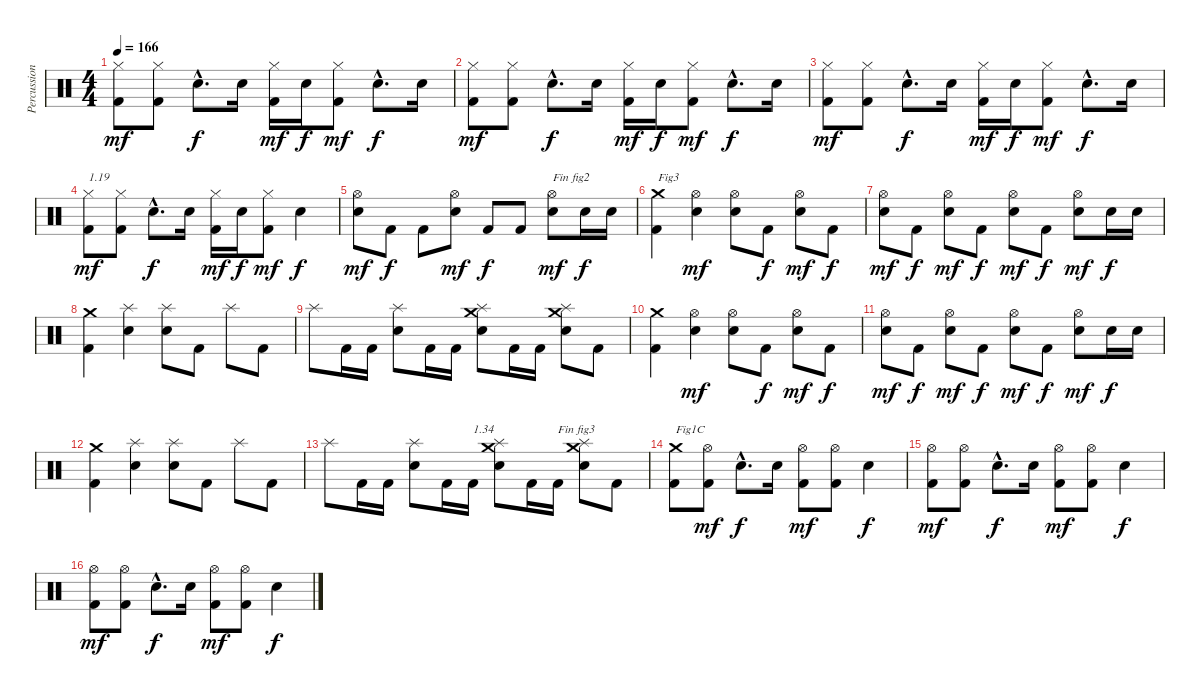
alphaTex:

\track ("Percussions" "Percussion") {instrument percussion}
\staff {score}
\articulation defaults
\ts (4 4)
\tempo 166
\clef neutral
\ks c
("Kick (hit) 2" "Hi-Hat (closed)").8{dy mf} ("Kick (hit) 2" "Hi-Hat (closed)").8 "Electric Snare (hit)"{hac}.8{d dy f} "Electric Snare (hit)".16 ("Kick (hit) 2" "Hi-Hat (closed)").16{dy mf} "Electric Snare (hit)".16{dy f} ("Kick (hit) 2" "Hi-Hat (closed)").8{dy mf} "Electric Snare (hit)"{hac}.8{d dy f} "Electric Snare (hit)".16 |
("Kick (hit) 2" "Hi-Hat (closed)").8{dy mf} ("Kick (hit) 2" "Hi-Hat (closed)").8 "Electric Snare (hit)"{hac}.8{d dy f} "Electric Snare (hit)".16 ("Kick (hit) 2" "Hi-Hat (closed)").16{dy mf} "Electric Snare (hit)".16{dy f} ("Kick (hit) 2" "Hi-Hat (closed)").8{dy mf} "Electric Snare (hit)"{hac}.8{d dy f} "Electric Snare (hit)".16 |
("Kick (hit) 2" "Hi-Hat (closed)").8{dy mf} ("Kick (hit) 2" "Hi-Hat (closed)").8 "Electric Snare (hit)"{hac}.8{d dy f} "Electric Snare (hit)".16 ("Kick (hit) 2" "Hi-Hat (closed)").16{dy mf} "Electric Snare (hit)".16{dy f} ("Kick (hit) 2" "Hi-Hat (closed)").8{dy mf} "Electric Snare (hit)"{hac}.8{d dy f} "Electric Snare (hit)".16 |
("Kick (hit) 2" "Hi-Hat (closed)").8{txt "1.19" dy mf} ("Kick (hit) 2" "Hi-Hat (closed)").8 "Electric Snare (hit)"{hac}.8{d dy f} "Electric Snare (hit)".16 ("Kick (hit) 2" "Hi-Hat (closed)").16{dy mf} "Electric Snare (hit)".16{dy f} ("Kick (hit) 2" "Hi-Hat (closed)").8{dy mf} "Electric Snare (hit)".4{dy f} |
("Electric Snare (hit)" "Hi-Hat (open)").8{dy mf} "Kick (hit) 2".8{dy f} "Kick (hit) 2".8 ("Electric Snare (hit)" "Hi-Hat (open)").8{dy mf} "Kick (hit) 2".8{dy f} "Kick (hit) 2".8 ("Electric Snare (hit)" "Hi-Hat (open)").8{txt "Fin fig2" dy mf} "Electric Snare (hit)".16{dy f} "Electric Snare (hit)".16 |
("Kick (hit) 2" "Crash medium (hit)").4{txt "Fig3"} ("Electric Snare (hit)" "Hi-Hat (open)").4{dy mf} ("Electric Snare (hit)" "Hi-Hat (open)").8 "Kick (hit) 2".8{dy f} ("Electric Snare (hit)" "Hi-Hat (open)").8{dy mf} "Kick (hit) 2".8{dy f} |
("Electric Snare (hit)" "Hi-Hat (open)").8{dy mf} "Kick (hit) 2".8{dy f} ("Electric Snare (hit)" "Hi-Hat (open)").8{dy mf} "Kick (hit) 2".8{dy f} ("Electric Snare (hit)" "Hi-Hat (open)").8{dy mf} "Kick (hit) 2".8{dy f} ("Electric Snare (hit)" "Hi-Hat (open)").8{dy mf} "Electric Snare (hit)".16{dy f} "Electric Snare (hit)".16 |
("Kick (hit) 2" "Crash medium (hit)").4 ("Electric Snare (hit)" "Splash (hit)").4 ("Electric Snare (hit)" "Splash (hit)").8 "Kick (hit) 2".8 "Splash (hit)".8 "Kick (hit) 2".8 |
"Splash (hit)".8 "Kick (hit) 2".16 "Kick (hit) 2".16 ("Electric Snare (hit)" "Splash (hit)").8 "Kick (hit) 2".16 "Kick (hit) 2".16 ("Electric Snare (hit)" "Splash (hit)" "Crash medium (hit)").8 "Kick (hit) 2".16 "Kick (hit) 2".16 ("Electric Snare (hit)" "Splash (hit)" "Crash medium (hit)").8 "Kick (hit) 2".8 |
("Kick (hit) 2" "Crash medium (hit)").4 ("Electric Snare (hit)" "Hi-Hat (open)").4{dy mf} ("Electric Snare (hit)" "Hi-Hat (open)").8 "Kick (hit) 2".8{dy f} ("Electric Snare (hit)" "Hi-Hat (open)").8{dy mf} "Kick (hit) 2".8{dy f} |
("Electric Snare (hit)" "Hi-Hat (open)").8{dy mf} "Kick (hit) 2".8{dy f} ("Electric Snare (hit)" "Hi-Hat (open)").8{dy mf} "Kick (hit) 2".8{dy f} ("Electric Snare (hit)" "Hi-Hat (open)").8{dy mf} "Kick (hit) 2".8{dy f} ("Electric Snare (hit)" "Hi-Hat (open)").8{dy mf} "Electric Snare (hit)".16{dy f} "Electric Snare (hit)".16 |
("Kick (hit) 2" "Crash medium (hit)").4 ("Electric Snare (hit)" "Splash (hit)").4 ("Electric Snare (hit)" "Splash (hit)").8 "Kick (hit) 2".8 "Splash (hit)".8 "Kick (hit) 2".8 |
"Splash (hit)".8 "Kick (hit) 2".16 "Kick (hit) 2".16 ("Electric Snare (hit)" "Splash (hit)").8 "Kick (hit) 2".16 "Kick (hit) 2".16{txt "1.34"} ("Electric Snare (hit)" "Splash (hit)" "Crash medium (hit)").8 "Kick (hit) 2".16 "Kick (hit) 2".16{txt "Fin fig3"} ("Electric Snare (hit)" "Splash (hit)" "Crash medium (hit)").8 "Kick (hit) 2".8 |
("Kick (hit) 2" "Crash medium (hit)").8{txt "Fig1C"} ("Kick (hit) 2" "Hi-Hat (open)").8{dy mf} "Electric Snare (hit)"{hac}.8{d dy f} "Electric Snare (hit)".16 ("Kick (hit) 2" "Hi-Hat (open)").8{dy mf} ("Kick (hit) 2" "Hi-Hat (open)").8 "Electric Snare (hit)".4{dy f} |
("Kick (hit) 2" "Hi-Hat (open)").8{dy mf} ("Kick (hit) 2" "Hi-Hat (open)").8 "Electric Snare (hit)"{hac}.8{d dy f} "Electric Snare (hit)".16 ("Kick (hit) 2" "Hi-Hat (open)").8{dy mf} ("Kick (hit) 2" "Hi-Hat (open)").8 "Electric Snare (hit)".4{dy f} |
("Kick (hit) 2" "Hi-Hat (open)").8{dy mf} ("Kick (hit) 2" "Hi-Hat (open)").8 "Electric Snare (hit)"{hac}.8{d dy f} "Electric Snare (hit)".16 ("Kick (hit) 2" "Hi-Hat (open)").8{dy mf} ("Kick (hit) 2" "Hi-Hat (open)").8 "Electric Snare (hit)".4{dy f}
